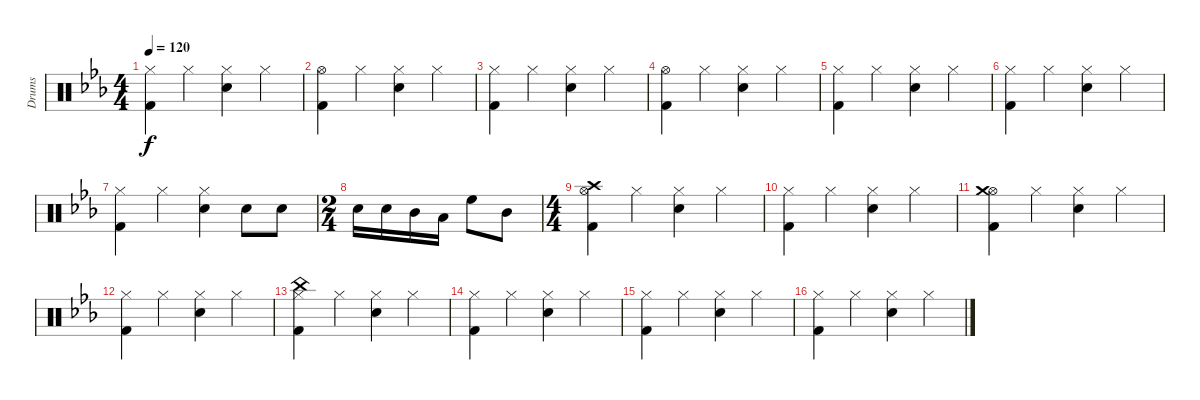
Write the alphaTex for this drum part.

\track ("Drums" "Drums") {instrument percussion}
\staff {score}
\articulation defaults
\ts (4 4)
\tempo 120
\clef neutral
\ks cminor
("Hi-Hat (closed)" "Kick (hit) 2").4{dy f} "Hi-Hat (closed)".4 ("Hi-Hat (closed)" "Snare (hit) 2").4 "Hi-Hat (closed)".4 |
("Hi-Hat (open)" "Kick (hit) 2").4 "Hi-Hat (closed)".4 ("Hi-Hat (closed)" "Snare (hit) 2").4 "Hi-Hat (closed)".4 |
("Hi-Hat (closed)" "Kick (hit) 2").4 "Hi-Hat (closed)".4 ("Hi-Hat (closed)" "Snare (hit) 2").4 "Hi-Hat (closed)".4 |
("Hi-Hat (open)" "Kick (hit) 2").4 "Hi-Hat (closed)".4 ("Hi-Hat (closed)" "Snare (hit) 2").4 "Hi-Hat (closed)".4 |
("Hi-Hat (closed)" "Kick (hit) 2").4 "Hi-Hat (closed)".4 ("Hi-Hat (closed)" "Snare (hit) 2").4 "Hi-Hat (closed)".4 |
("Hi-Hat (closed)" "Kick (hit) 2").4 "Hi-Hat (closed)".4 ("Hi-Hat (closed)" "Snare (hit) 2").4 "Hi-Hat (closed)".4 |
("Hi-Hat (closed)" "Kick (hit) 2").4 "Hi-Hat (closed)".4 ("Hi-Hat (closed)" "Snare (hit) 2").4 "Snare (hit) 2".8 "Snare (hit) 2".8 |
\ts (2 4)
"Snare (hit) 2".16 "Snare (hit) 2".16 "Mid Tom (hit)".16 "Low Tom (hit)".16 "High Floor Tom (hit)".8 "Mid Tom (hit)".8 |
\ts (4 4)
("Hi-Hat (open)" "Crash high (hit)" "Kick (hit) 2").4 "Hi-Hat (closed)".4 ("Hi-Hat (closed)" "Snare (hit) 2").4 "Hi-Hat (closed)".4 |
("Hi-Hat (closed)" "Kick (hit) 2").4 "Hi-Hat (closed)".4 ("Hi-Hat (closed)" "Snare (hit) 2").4 "Hi-Hat (closed)".4 |
("Hi-Hat (open)" "Crash medium (hit)" "Kick (hit) 2").4 "Hi-Hat (closed)".4 ("Hi-Hat (closed)" "Snare (hit) 2").4 "Hi-Hat (closed)".4 |
("Hi-Hat (closed)" "Kick (hit) 2").4 "Hi-Hat (closed)".4 ("Hi-Hat (closed)" "Snare (hit) 2").4 "Hi-Hat (closed)".4 |
("Hi-Hat (closed)" "China (hit)" "Kick (hit) 2").4 "Hi-Hat (closed)".4 ("Hi-Hat (closed)" "Snare (hit) 2").4 "Hi-Hat (closed)".4 |
("Hi-Hat (closed)" "Kick (hit) 2").4 "Hi-Hat (closed)".4 ("Hi-Hat (closed)" "Snare (hit) 2").4 "Hi-Hat (closed)".4 |
("Hi-Hat (closed)" "Kick (hit) 2").4 "Hi-Hat (closed)".4 ("Hi-Hat (closed)" "Snare (hit) 2").4 "Hi-Hat (closed)".4 |
("Hi-Hat (closed)" "Kick (hit) 2").4 "Hi-Hat (closed)".4 ("Hi-Hat (closed)" "Snare (hit) 2").4 "Hi-Hat (closed)".4
